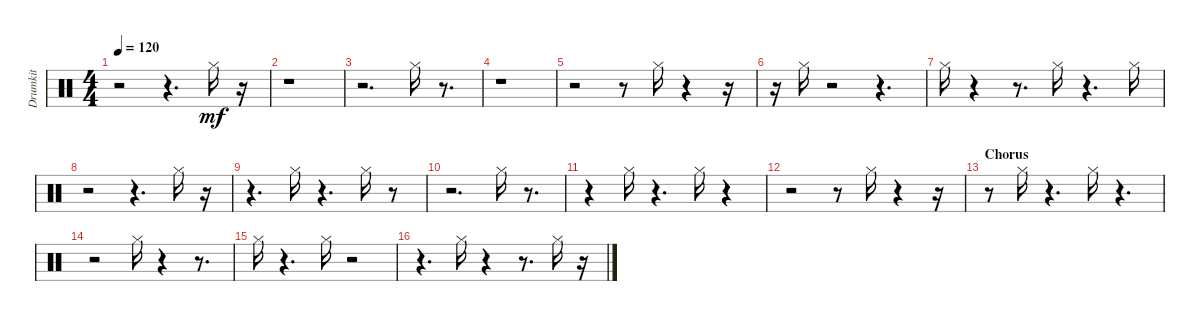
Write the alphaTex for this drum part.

\track ("Drumkit" "Drumkit") {instrument percussion}
\staff {score}
\articulation defaults
\ts (4 4)
\tempo 120
\clef neutral
\ks aminor
r.2{dy mf} r.4{d} "Hi-Hat (closed)".16 r.16 |
r.1 |
r.2{d} "Hi-Hat (closed)".16 r.8{d} |
r.1 |
r.2 r.8 "Hi-Hat (closed)".16 r.4 r.16 |
r.16 "Hi-Hat (closed)".16 r.2 r.4{d} |
"Hi-Hat (closed)".16 r.4 r.8{d} "Hi-Hat (closed)".16 r.4{d} "Hi-Hat (closed)".16 |
r.2 r.4{d} "Hi-Hat (closed)".16 r.16 |
r.4{d} "Hi-Hat (closed)".16 r.4{d} "Hi-Hat (closed)".16 r.8 |
r.2{d} "Hi-Hat (closed)".16 r.8{d} |
r.4 "Hi-Hat (closed)".16 r.4{d} "Hi-Hat (closed)".16 r.4 |
r.2 r.8 "Hi-Hat (closed)".16 r.4 r.16 |
\section ("" "Chorus")
r.8 "Hi-Hat (closed)".16 r.4{d} "Hi-Hat (closed)".16 r.4{d} |
r.2 "Hi-Hat (closed)".16 r.4 r.8{d} |
"Hi-Hat (closed)".16 r.4{d} "Hi-Hat (closed)".16 r.2 |
r.4{d} "Hi-Hat (closed)".16 r.4 r.8{d} "Hi-Hat (closed)".16 r.16
